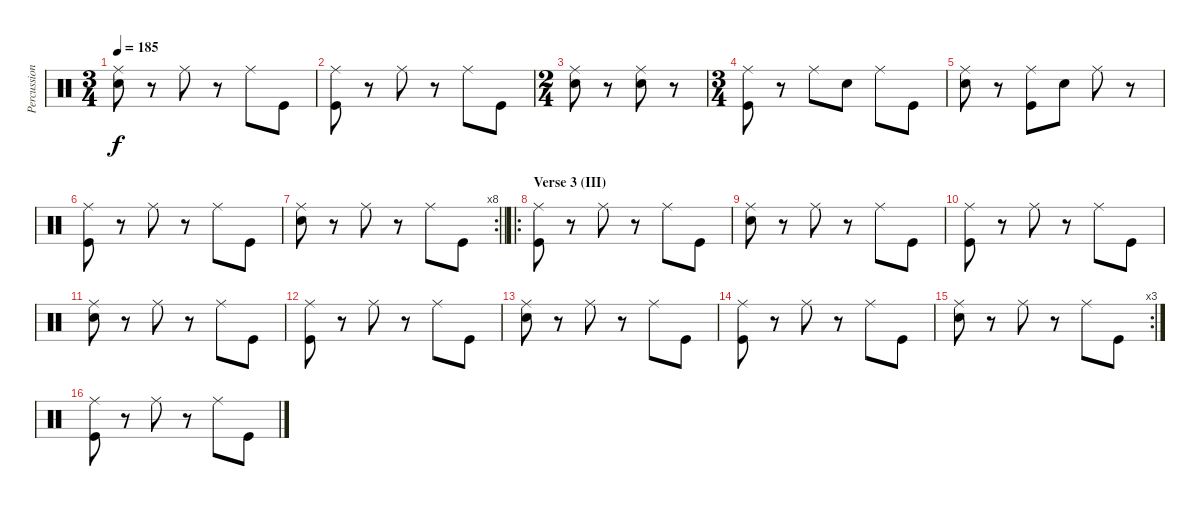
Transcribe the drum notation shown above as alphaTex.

\track ("Percussion" "Percussion") {instrument percussion}
\staff {score}
\articulation defaults
\ts (3 4)
\tempo 185
\clef neutral
\ks c
("Ride (middle)" "Snare (hit) 2").8{dy f} r.8 "Ride (middle)".8 r.8 "Ride (middle)".8 "Kick (hit)".8 |
("Ride (middle)" "Kick (hit)").8 r.8 "Ride (middle)".8 r.8 "Ride (middle)".8 "Kick (hit)".8 |
\ts (2 4)
("Ride (middle)" "Snare (hit) 2").8 r.8 ("Ride (middle)" "Snare (hit) 2").8 r.8 |
\ts (3 4)
("Ride (middle)" "Kick (hit)").8 r.8 "Ride (middle)".8 "Snare (hit) 2".8 "Ride (middle)".8 "Kick (hit)".8 |
("Ride (middle)" "Snare (hit) 2").8 r.8 ("Ride (middle)" "Kick (hit)").8 "Snare (hit) 2".8 "Ride (middle)".8 r.8 |
("Ride (middle)" "Kick (hit)").8 r.8 "Ride (middle)".8 r.8 "Ride (middle)".8 "Kick (hit)".8 |
\rc 8
\barLineRight lightlight
("Ride (middle)" "Snare (hit) 2").8 r.8 "Ride (middle)".8 r.8 "Ride (middle)".8 "Kick (hit)".8 |
\ro
\section ("" "Verse 3 (III)")
("Ride (middle)" "Kick (hit)").8 r.8 "Ride (middle)".8 r.8 "Ride (middle)".8 "Kick (hit)".8 |
("Ride (middle)" "Snare (hit) 2").8 r.8 "Ride (middle)".8 r.8 "Ride (middle)".8 "Kick (hit)".8 |
("Ride (middle)" "Kick (hit)").8 r.8 "Ride (middle)".8 r.8 "Ride (middle)".8 "Kick (hit)".8 |
("Ride (middle)" "Snare (hit) 2").8 r.8 "Ride (middle)".8 r.8 "Ride (middle)".8 "Kick (hit)".8 |
("Ride (middle)" "Kick (hit)").8 r.8 "Ride (middle)".8 r.8 "Ride (middle)".8 "Kick (hit)".8 |
("Ride (middle)" "Snare (hit) 2").8 r.8 "Ride (middle)".8 r.8 "Ride (middle)".8 "Kick (hit)".8 |
("Ride (middle)" "Kick (hit)").8 r.8 "Ride (middle)".8 r.8 "Ride (middle)".8 "Kick (hit)".8 |
\rc 3
("Ride (middle)" "Snare (hit) 2").8 r.8 "Ride (middle)".8 r.8 "Ride (middle)".8 "Kick (hit)".8 |
("Ride (middle)" "Kick (hit)").8 r.8 "Ride (middle)".8 r.8 "Ride (middle)".8 "Kick (hit)".8
